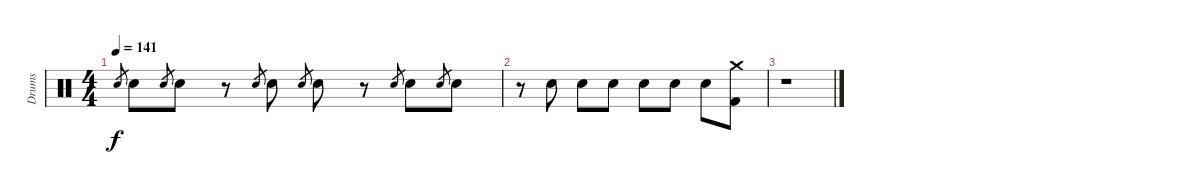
\track ("Drums" "Drums") {instrument percussion}
\staff {score}
\articulation defaults
\ts (4 4)
\tempo 141
\clef neutral
\ks c "Electric Snare (hit)".8{gr dy f} "Electric Snare (hit)".8 "Electric Snare (hit)".8{gr} "Electric Snare (hit)".8
r.8 "Electric Snare (hit)".8{gr} "Electric Snare (hit)".8 "Electric Snare (hit)".8{gr} "Electric Snare (hit)".8 r.8 "Electric Snare (hit)".8{gr} "Electric Snare (hit)".8 "Electric Snare (hit)".8{gr} "Electric Snare (hit)".8 |
r.8 "Electric Snare (hit)".8 "Electric Snare (hit)".8 "Electric Snare (hit)".8 "Electric Snare (hit)".8 "Electric Snare (hit)".8 "Electric Snare (hit)".8 ("Crash medium (hit)" "Kick (hit) 2").8 |
r.1
